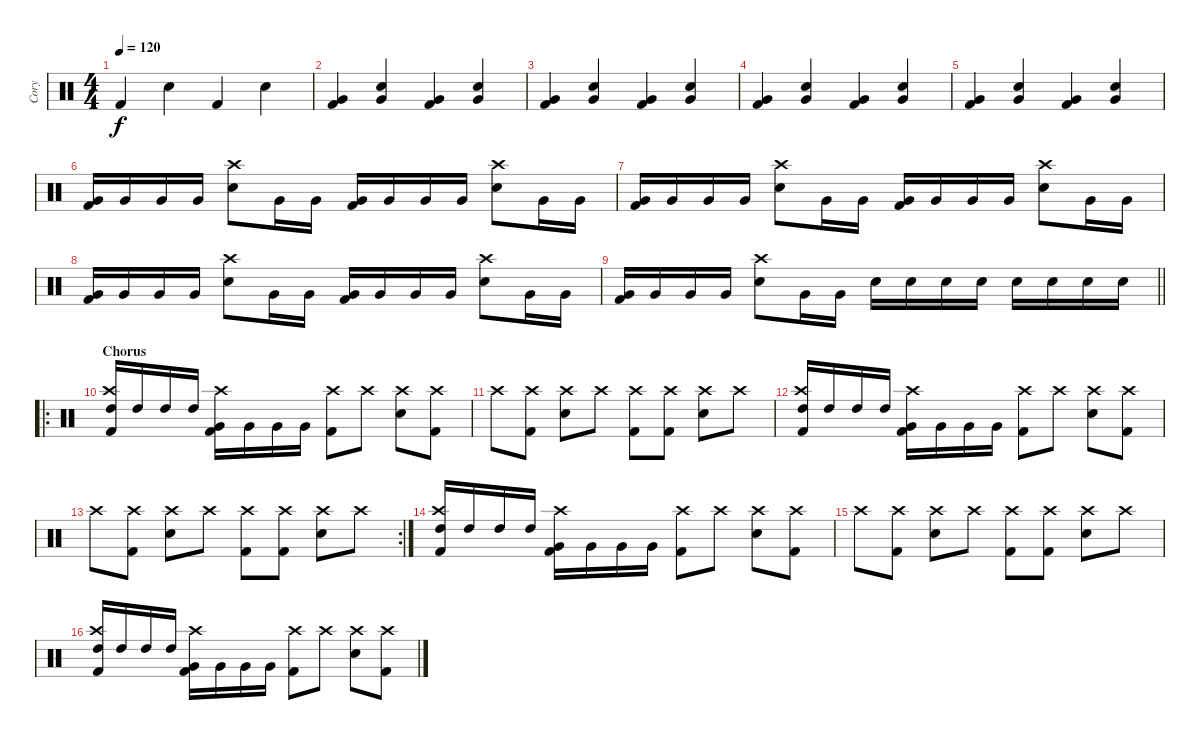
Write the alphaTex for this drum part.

\track ("Cory" "Cory") {instrument percussion}
\staff {score}
\articulation defaults
\ts (4 4)
\tempo 120
\clef neutral
\ks c "Kick (hit) 2".4{dy f} "Snare (hit) 2".4 "Kick (hit) 2".4 "Snare (hit) 2".4
|
("Very Low Tom (hit)" "Kick (hit) 2").4 ("Snare (hit) 2" "Very Low Tom (hit)").4 ("Very Low Tom (hit)" "Kick (hit) 2").4 ("Snare (hit) 2" "Very Low Tom (hit)").4 |
("Very Low Tom (hit)" "Kick (hit) 2").4 ("Snare (hit) 2" "Very Low Tom (hit)").4 ("Very Low Tom (hit)" "Kick (hit) 2").4 ("Snare (hit) 2" "Very Low Tom (hit)").4 |
("Very Low Tom (hit)" "Kick (hit) 2").4 ("Snare (hit) 2" "Very Low Tom (hit)").4 ("Very Low Tom (hit)" "Kick (hit) 2").4 ("Snare (hit) 2" "Very Low Tom (hit)").4 |
("Very Low Tom (hit)" "Kick (hit) 2").4 ("Snare (hit) 2" "Very Low Tom (hit)").4 ("Very Low Tom (hit)" "Kick (hit) 2").4 ("Snare (hit) 2" "Very Low Tom (hit)").4 |
("Very Low Tom (hit)" "Kick (hit) 2").16 "Very Low Tom (hit)".16 "Very Low Tom (hit)".16 "Very Low Tom (hit)".16 ("Crash high (hit)" "Snare (hit) 2").8 "Very Low Tom (hit)".16 "Very Low Tom (hit)".16 ("Very Low Tom (hit)" "Kick (hit) 2").16 "Very Low Tom (hit)".16 "Very Low Tom (hit)".16 "Very Low Tom (hit)".16 ("Crash high (hit)" "Snare (hit) 2").8 "Very Low Tom (hit)".16 "Very Low Tom (hit)".16 |
("Very Low Tom (hit)" "Kick (hit) 2").16 "Very Low Tom (hit)".16 "Very Low Tom (hit)".16 "Very Low Tom (hit)".16 ("Crash high (hit)" "Snare (hit) 2").8 "Very Low Tom (hit)".16 "Very Low Tom (hit)".16 ("Very Low Tom (hit)" "Kick (hit) 2").16 "Very Low Tom (hit)".16 "Very Low Tom (hit)".16 "Very Low Tom (hit)".16 ("Crash high (hit)" "Snare (hit) 2").8 "Very Low Tom (hit)".16 "Very Low Tom (hit)".16 |
("Very Low Tom (hit)" "Kick (hit) 2").16 "Very Low Tom (hit)".16 "Very Low Tom (hit)".16 "Very Low Tom (hit)".16 ("Crash high (hit)" "Snare (hit) 2").8 "Very Low Tom (hit)".16 "Very Low Tom (hit)".16 ("Very Low Tom (hit)" "Kick (hit) 2").16 "Very Low Tom (hit)".16 "Very Low Tom (hit)".16 "Very Low Tom (hit)".16 ("Crash high (hit)" "Snare (hit) 2").8 "Very Low Tom (hit)".16 "Very Low Tom (hit)".16 |
\barLineRight lightlight
("Very Low Tom (hit)" "Kick (hit) 2").16 "Very Low Tom (hit)".16 "Very Low Tom (hit)".16 "Very Low Tom (hit)".16 ("Crash high (hit)" "Snare (hit) 2").8 "Very Low Tom (hit)".16 "Very Low Tom (hit)".16 "Snare (hit) 2".16 "Snare (hit) 2".16 "Snare (hit) 2".16 "Snare (hit) 2".16 "Snare (hit) 2".16 "Snare (hit) 2".16 "Snare (hit) 2".16 "Snare (hit) 2".16 |
\ro
\section ("" "Chorus")
("Crash high (hit)" "High Tom (hit)" "Kick (hit) 2").16 "High Tom (hit)".16 "High Tom (hit)".16 "High Tom (hit)".16 ("Crash high (hit)" "Very Low Tom (hit)" "Kick (hit) 2").16 "Very Low Tom (hit)".16 "Very Low Tom (hit)".16 "Very Low Tom (hit)".16 ("Crash high (hit)" "Kick (hit) 2").8 "Crash high (hit)".8 ("Crash high (hit)" "Snare (hit) 2").8 ("Crash high (hit)" "Kick (hit) 2").8 |
"Crash high (hit)".8 ("Crash high (hit)" "Kick (hit) 2").8 ("Crash high (hit)" "Snare (hit) 2").8 "Crash high (hit)".8 ("Crash high (hit)" "Kick (hit) 2").8 ("Crash high (hit)" "Kick (hit) 2").8 ("Crash high (hit)" "Snare (hit) 2").8 "Crash high (hit)".8 |
("Crash high (hit)" "High Tom (hit)" "Kick (hit) 2").16 "High Tom (hit)".16 "High Tom (hit)".16 "High Tom (hit)".16 ("Crash high (hit)" "Very Low Tom (hit)" "Kick (hit) 2").16 "Very Low Tom (hit)".16 "Very Low Tom (hit)".16 "Very Low Tom (hit)".16 ("Crash high (hit)" "Kick (hit) 2").8 "Crash high (hit)".8 ("Crash high (hit)" "Snare (hit) 2").8 ("Crash high (hit)" "Kick (hit) 2").8 |
\rc 2 "Crash high (hit)".8
("Crash high (hit)" "Kick (hit) 2").8 ("Crash high (hit)" "Snare (hit) 2").8 "Crash high (hit)".8 ("Crash high (hit)" "Kick (hit) 2").8 ("Crash high (hit)" "Kick (hit) 2").8 ("Crash high (hit)" "Snare (hit) 2").8 "Crash high (hit)".8 |
("Crash high (hit)" "High Tom (hit)" "Kick (hit) 2").16 "High Tom (hit)".16 "High Tom (hit)".16 "High Tom (hit)".16 ("Crash high (hit)" "Very Low Tom (hit)" "Kick (hit) 2").16 "Very Low Tom (hit)".16 "Very Low Tom (hit)".16 "Very Low Tom (hit)".16 ("Crash high (hit)" "Kick (hit) 2").8 "Crash high (hit)".8 ("Crash high (hit)" "Snare (hit) 2").8 ("Crash high (hit)" "Kick (hit) 2").8 |
"Crash high (hit)".8 ("Crash high (hit)" "Kick (hit) 2").8 ("Crash high (hit)" "Snare (hit) 2").8 "Crash high (hit)".8 ("Crash high (hit)" "Kick (hit) 2").8 ("Crash high (hit)" "Kick (hit) 2").8 ("Crash high (hit)" "Snare (hit) 2").8 "Crash high (hit)".8 |
("Crash high (hit)" "High Tom (hit)" "Kick (hit) 2").16 "High Tom (hit)".16 "High Tom (hit)".16 "High Tom (hit)".16 ("Crash high (hit)" "Very Low Tom (hit)" "Kick (hit) 2").16 "Very Low Tom (hit)".16 "Very Low Tom (hit)".16 "Very Low Tom (hit)".16 ("Crash high (hit)" "Kick (hit) 2").8 "Crash high (hit)".8 ("Crash high (hit)" "Snare (hit) 2").8 ("Crash high (hit)" "Kick (hit) 2").8
